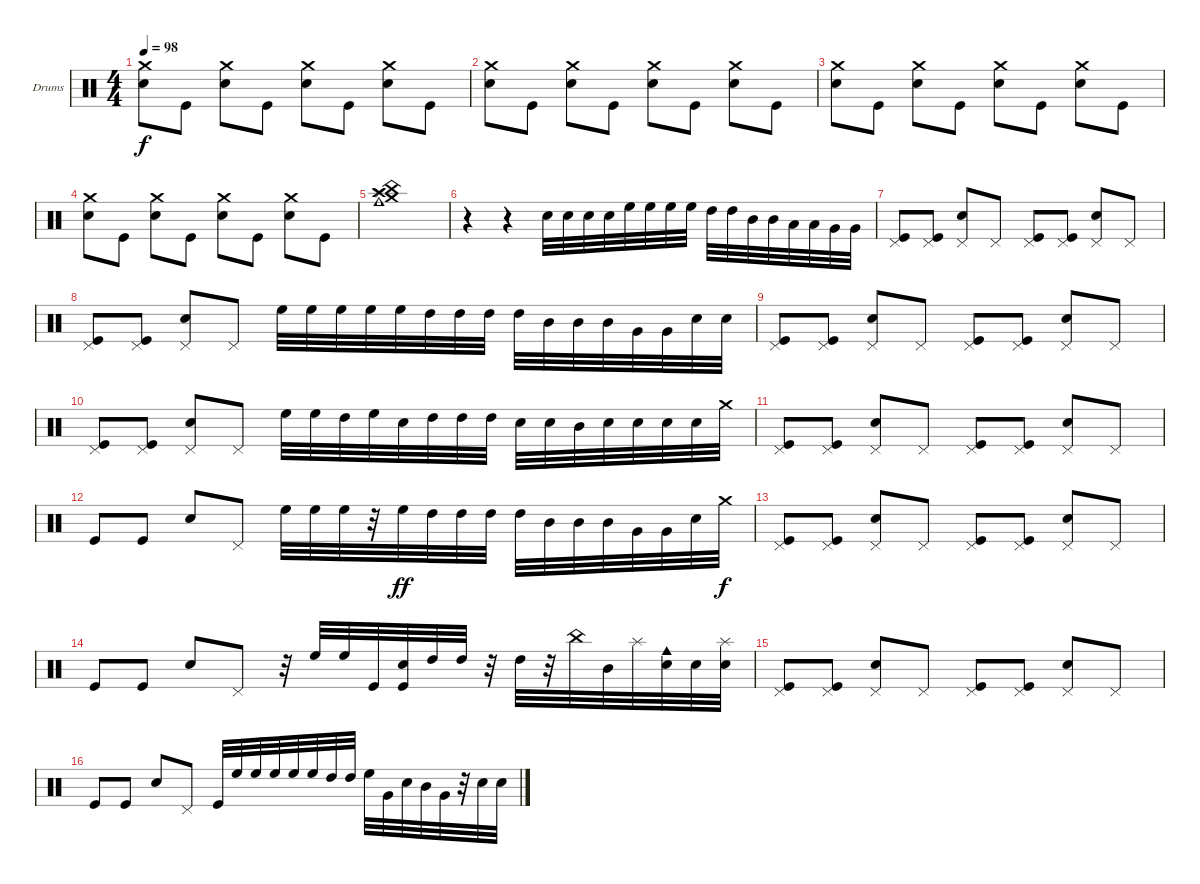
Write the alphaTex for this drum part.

\bracketExtendMode groupsimilarinstruments
\firstSystemTrackNameOrientation horizontal
\otherSystemsTrackNameOrientation horizontal
\track ("Drumkit" "Drums") {instrument percussion}
\staff {score}
\articulation defaults
\ts (4 4)
\tempo 98
\clef neutral
\ks c
("Crash medium (hit)" "Snare (hit) 2").8{dy f} "Kick (hit)".8 ("Crash medium (hit)" "Snare (hit) 2").8 "Kick (hit)".8 ("Crash medium (hit)" "Snare (hit) 2").8 "Kick (hit)".8 ("Crash medium (hit)" "Snare (hit) 2").8 "Kick (hit)".8 |
("Crash medium (hit)" "Snare (hit) 2").8 "Kick (hit)".8 ("Crash medium (hit)" "Snare (hit) 2").8 "Kick (hit)".8 ("Crash medium (hit)" "Snare (hit) 2").8 "Kick (hit)".8 ("Crash medium (hit)" "Snare (hit) 2").8 "Kick (hit)".8 |
("Crash medium (hit)" "Snare (hit) 2").8 "Kick (hit)".8 ("Crash medium (hit)" "Snare (hit) 2").8 "Kick (hit)".8 ("Crash medium (hit)" "Snare (hit) 2").8 "Kick (hit)".8 ("Crash medium (hit)" "Snare (hit) 2").8 "Kick (hit)".8 |
("Crash medium (hit)" "Snare (hit) 2").8 "Kick (hit)".8 ("Crash medium (hit)" "Snare (hit) 2").8 "Kick (hit)".8 ("Crash medium (hit)" "Snare (hit) 2").8 "Kick (hit)".8 ("Crash medium (hit)" "Snare (hit) 2").8 "Kick (hit)".8 |
("Cowbell medium (hit)" "Crash medium (hit)" "Crash high (hit)" "China (hit)" "Splash (hit)").1 |
r.4 r.4 "Snare (hit) 2".32 "Snare (hit) 2".32 "Snare (hit) 2".32 "Snare (hit) 2".32 "High Floor Tom (hit)".32 "High Floor Tom (hit)".32 "High Floor Tom (hit)".32 "High Floor Tom (hit)".32 "High Tom (hit)".32 "High Tom (hit)".32 "Mid Tom (hit)".32 "Mid Tom (hit)".32 "Low Tom (hit)".32 "Low Tom (hit)".32 "Very Low Tom (hit)".32 "Very Low Tom (hit)".32 |
("Pedal Hi-Hat (hit)" "Kick (hit)").8 ("Pedal Hi-Hat (hit)" "Kick (hit)").8 ("Pedal Hi-Hat (hit)" "Snare (hit) 2").8 "Pedal Hi-Hat (hit)".8 ("Pedal Hi-Hat (hit)" "Kick (hit)").8 ("Pedal Hi-Hat (hit)" "Kick (hit)").8 ("Pedal Hi-Hat (hit)" "Snare (hit) 2").8 "Pedal Hi-Hat (hit)".8 |
("Pedal Hi-Hat (hit)" "Kick (hit)").8 ("Pedal Hi-Hat (hit)" "Kick (hit)").8 ("Pedal Hi-Hat (hit)" "Snare (hit) 2").8 "Pedal Hi-Hat (hit)".8 "High Floor Tom (hit)".32 "High Floor Tom (hit)".32 "High Floor Tom (hit)".32 "High Floor Tom (hit)".32 "High Floor Tom (hit)".32 "High Tom (hit)".32 "High Tom (hit)".32 "High Tom (hit)".32 "High Tom (hit)".32 "Mid Tom (hit)".32 "Mid Tom (hit)".32 "Mid Tom (hit)".32 "Very Low Tom (hit)".32 "Very Low Tom (hit)".32 "Snare (hit) 2".32 "Snare (hit) 2".32 |
("Pedal Hi-Hat (hit)" "Kick (hit)").8 ("Pedal Hi-Hat (hit)" "Kick (hit)").8 ("Pedal Hi-Hat (hit)" "Snare (hit) 2").8 "Pedal Hi-Hat (hit)".8 ("Pedal Hi-Hat (hit)" "Kick (hit)").8 ("Pedal Hi-Hat (hit)" "Kick (hit)").8 ("Pedal Hi-Hat (hit)" "Snare (hit) 2").8 "Pedal Hi-Hat (hit)".8 |
("Pedal Hi-Hat (hit)" "Kick (hit)").8 ("Pedal Hi-Hat (hit)" "Kick (hit)").8 ("Pedal Hi-Hat (hit)" "Snare (hit) 2").8 "Pedal Hi-Hat (hit)".8 "High Floor Tom (hit)".32 "High Floor Tom (hit)".32 "High Tom (hit)".32 "High Floor Tom (hit)".32 "Snare (hit) 2".32 "High Tom (hit)".32 "High Tom (hit)".32 "High Tom (hit)".32 "Snare (hit) 2".32 "Snare (hit) 2".32 "Mid Tom (hit)".32 "Snare (hit) 2".32 "Snare (hit) 2".32 "Snare (hit) 2".32 "Snare (hit) 2".32 "Crash medium (hit)".32 |
("Pedal Hi-Hat (hit)" "Kick (hit)").8 ("Pedal Hi-Hat (hit)" "Kick (hit)").8 ("Pedal Hi-Hat (hit)" "Snare (hit) 2").8 "Pedal Hi-Hat (hit)".8 ("Pedal Hi-Hat (hit)" "Kick (hit)").8 ("Pedal Hi-Hat (hit)" "Kick (hit)").8 ("Pedal Hi-Hat (hit)" "Snare (hit) 2").8 "Pedal Hi-Hat (hit)".8 |
"Kick (hit)".8 "Kick (hit)".8 "Snare (hit) 2".8 "Pedal Hi-Hat (hit)".8 "High Floor Tom (hit)".32 "High Floor Tom (hit)".32 "High Floor Tom (hit)".32 r.32 "High Floor Tom (hit)".32{dy ff} "High Tom (hit)".32 "High Tom (hit)".32 "High Tom (hit)".32 "High Tom (hit)".32 "Mid Tom (hit)".32 "Mid Tom (hit)".32 "Mid Tom (hit)".32 "Very Low Tom (hit)".32 "Very Low Tom (hit)".32 "Snare (hit) 2".32 "Crash medium (hit)".32{dy f} |
("Pedal Hi-Hat (hit)" "Kick (hit)").8 ("Pedal Hi-Hat (hit)" "Kick (hit)").8 ("Pedal Hi-Hat (hit)" "Snare (hit) 2").8 "Pedal Hi-Hat (hit)".8 ("Pedal Hi-Hat (hit)" "Kick (hit)").8 ("Pedal Hi-Hat (hit)" "Kick (hit)").8 ("Pedal Hi-Hat (hit)" "Snare (hit) 2").8 "Pedal Hi-Hat (hit)".8 |
"Kick (hit)".8 "Kick (hit)".8 "Snare (hit) 2".8 "Pedal Hi-Hat (hit)".8 r.32 "High Floor Tom (hit)".32 "High Floor Tom (hit)".32 "Kick (hit)".32 ("Snare (hit) 2" "Kick (hit)").32 "High Tom (hit)".32 "High Tom (hit)".32 r.32 "High Tom (hit)".32 r.32 "China (hit)".32 "Mid Tom (hit)".32 "Splash (hit)".32 ("Snare (hit) 2" "Cowbell medium (hit)").32 "Snare (hit) 2".32 ("Splash (hit)" "Snare (hit) 2").32 |
("Pedal Hi-Hat (hit)" "Kick (hit)").8 ("Pedal Hi-Hat (hit)" "Kick (hit)").8 ("Pedal Hi-Hat (hit)" "Snare (hit) 2").8 "Pedal Hi-Hat (hit)".8 ("Pedal Hi-Hat (hit)" "Kick (hit)").8 ("Pedal Hi-Hat (hit)" "Kick (hit)").8 ("Pedal Hi-Hat (hit)" "Snare (hit) 2").8 "Pedal Hi-Hat (hit)".8 |
"Kick (hit)".8 "Kick (hit)".8 "Snare (hit) 2".8 "Pedal Hi-Hat (hit)".8 "Kick (hit)".32 "High Floor Tom (hit)".32 "High Floor Tom (hit)".32 "High Floor Tom (hit)".32 "High Floor Tom (hit)".32 "High Floor Tom (hit)".32 "High Tom (hit)".32 "High Tom (hit)".32 "High Floor Tom (hit)".32 "Very Low Tom (hit)".32 "Snare (hit) 2".32 "Mid Tom (hit)".32 "Very Low Tom (hit)".32 r.32 "Snare (hit) 2".32 "Snare (hit) 2".32
